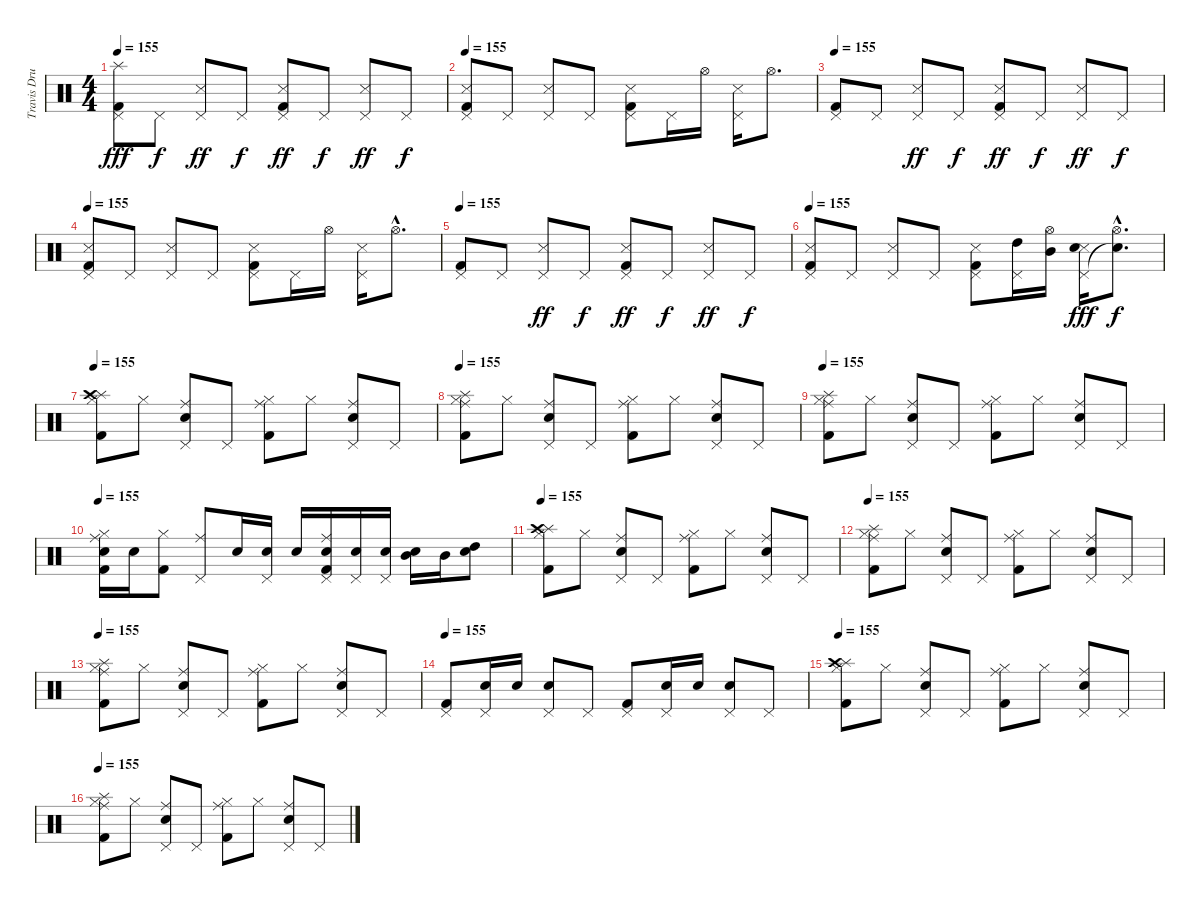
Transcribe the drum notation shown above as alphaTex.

\track ("Travis Drums" "Travis Dru") {instrument percussion}
\staff {score}
\articulation defaults
\ts (4 4)
\tempo 155
\clef neutral
\ks c
("Splash (hit)" "Pedal Hi-Hat (hit)" "Kick (hit) 2").8{dy fff} "Pedal Hi-Hat (hit)".8{dy f} ("Metronome (hit)" "Pedal Hi-Hat (hit)").8{dy ff} "Pedal Hi-Hat (hit)".8{dy f} ("Metronome (hit)" "Pedal Hi-Hat (hit)" "Kick (hit) 2").8{dy ff} "Pedal Hi-Hat (hit)".8{dy f} ("Metronome (hit)" "Pedal Hi-Hat (hit)").8{dy ff} "Pedal Hi-Hat (hit)".8{dy f} |
\tempo 155
("Metronome (hit)" "Pedal Hi-Hat (hit)" "Kick (hit) 2").8 "Pedal Hi-Hat (hit)".8 ("Metronome (hit)" "Pedal Hi-Hat (hit)").8 "Pedal Hi-Hat (hit)".8 ("Metronome (hit)" "Pedal Hi-Hat (hit)" "Kick (hit) 2").8 "Pedal Hi-Hat (hit)".16 "Hi-Hat (open)".16 ("Metronome (hit)" "Pedal Hi-Hat (hit)").16 "Hi-Hat (open)".8{d} |
\tempo 155
("Pedal Hi-Hat (hit)" "Kick (hit) 2").8 "Pedal Hi-Hat (hit)".8 ("Metronome (hit)" "Pedal Hi-Hat (hit)").8{dy ff} "Pedal Hi-Hat (hit)".8{dy f} ("Metronome (hit)" "Pedal Hi-Hat (hit)" "Kick (hit) 2").8{dy ff} "Pedal Hi-Hat (hit)".8{dy f} ("Metronome (hit)" "Pedal Hi-Hat (hit)").8{dy ff} "Pedal Hi-Hat (hit)".8{dy f} |
\tempo 155
("Metronome (hit)" "Pedal Hi-Hat (hit)" "Kick (hit) 2").8 "Pedal Hi-Hat (hit)".8 ("Metronome (hit)" "Pedal Hi-Hat (hit)").8 "Pedal Hi-Hat (hit)".8 ("Metronome (hit)" "Pedal Hi-Hat (hit)" "Kick (hit) 2").8 "Pedal Hi-Hat (hit)".16 "Hi-Hat (open)".16 ("Metronome (hit)" "Pedal Hi-Hat (hit)").16 "Hi-Hat (open)"{hac}.8{d} |
\tempo 155
("Pedal Hi-Hat (hit)" "Kick (hit) 2").8 "Pedal Hi-Hat (hit)".8 ("Metronome (hit)" "Pedal Hi-Hat (hit)").8{dy ff} "Pedal Hi-Hat (hit)".8{dy f} ("Metronome (hit)" "Pedal Hi-Hat (hit)" "Kick (hit) 2").8{dy ff} "Pedal Hi-Hat (hit)".8{dy f} ("Metronome (hit)" "Pedal Hi-Hat (hit)").8{dy ff} "Pedal Hi-Hat (hit)".8{dy f} |
\tempo 155
("Metronome (hit)" "Pedal Hi-Hat (hit)" "Kick (hit) 2").8 "Pedal Hi-Hat (hit)".8 ("Metronome (hit)" "Pedal Hi-Hat (hit)").8 "Pedal Hi-Hat (hit)".8 ("Metronome (hit)" "Pedal Hi-Hat (hit)" "Kick (hit) 2").8 ("Pedal Hi-Hat (hit)" "High Tom (hit)").16 ("Hi-Hat (open)" "Mid Tom (hit)").16 ("Metronome (hit)" "Pedal Hi-Hat (hit)" "Electric Snare (hit)").16{dy fff} ("Hi-Hat (open)"{hac} "Snare (hit)"{hac t}).8{d dy f} |
\tempo 155
("Splash (hit)" "Hi-Hat (closed)" "Kick (hit) 2" "Crash high (hit)").8 "Hi-Hat (closed)".8 ("Electric Snare (hit)" "Pedal Hi-Hat (hit)" "Ride (middle)").8 "Pedal Hi-Hat (hit)".8 ("Hi-Hat (closed)" "Kick (hit) 2" "Ride (middle)").8 "Hi-Hat (closed)".8 ("Electric Snare (hit)" "Pedal Hi-Hat (hit)" "Ride (middle)").8 "Pedal Hi-Hat (hit)".8 |
\tempo 155
("Splash (hit)" "Hi-Hat (closed)" "Kick (hit) 2" "Ride (middle)").8 "Hi-Hat (closed)".8 ("Electric Snare (hit)" "Pedal Hi-Hat (hit)" "Ride (middle)").8 "Pedal Hi-Hat (hit)".8 ("Hi-Hat (closed)" "Kick (hit) 2" "Ride (middle)").8 "Hi-Hat (closed)".8 ("Electric Snare (hit)" "Pedal Hi-Hat (hit)" "Ride (middle)").8 "Pedal Hi-Hat (hit)".8 |
\tempo 155
("Splash (hit)" "Hi-Hat (closed)" "Kick (hit) 2" "Ride (middle)").8 "Hi-Hat (closed)".8 ("Electric Snare (hit)" "Pedal Hi-Hat (hit)" "Ride (middle)").8 "Pedal Hi-Hat (hit)".8 ("Hi-Hat (closed)" "Kick (hit) 2" "Ride (middle)").8 "Hi-Hat (closed)".8 ("Electric Snare (hit)" "Pedal Hi-Hat (hit)" "Ride (middle)").8 "Pedal Hi-Hat (hit)".8 |
\tempo 155
("Electric Snare (hit)" "Hi-Hat (closed)" "Kick (hit) 2" "Ride (middle)").16 "Electric Snare (hit)".16 ("Hi-Hat (closed)" "Kick (hit) 2").8 ("Pedal Hi-Hat (hit)" "Ride (middle)").8 "Electric Snare (hit)".16 ("Electric Snare (hit)" "Pedal Hi-Hat (hit)").16 "Electric Snare (hit)".16 ("Electric Snare (hit)" "Pedal Hi-Hat (hit)" "Kick (hit) 2" "Ride (middle)").16 ("Snare (hit) 2" "Pedal Hi-Hat (hit)").16 ("Snare (hit) 2" "Pedal Hi-Hat (hit)").16 ("Electric Snare (hit)" "Mid Tom (hit)").16 "Mid Tom (hit)".16 ("Electric Snare (hit)" "High Tom (hit)").8 |
\tempo 155
("Splash (hit)" "Hi-Hat (closed)" "Kick (hit) 2" "Crash high (hit)").8 "Hi-Hat (closed)".8 ("Electric Snare (hit)" "Pedal Hi-Hat (hit)" "Ride (middle)").8 "Pedal Hi-Hat (hit)".8 ("Hi-Hat (closed)" "Kick (hit) 2" "Ride (middle)").8 "Hi-Hat (closed)".8 ("Electric Snare (hit)" "Pedal Hi-Hat (hit)" "Ride (middle)").8 "Pedal Hi-Hat (hit)".8 |
\tempo 155
("Splash (hit)" "Hi-Hat (closed)" "Kick (hit) 2" "Ride (middle)").8 "Hi-Hat (closed)".8 ("Electric Snare (hit)" "Pedal Hi-Hat (hit)" "Ride (middle)").8 "Pedal Hi-Hat (hit)".8 ("Hi-Hat (closed)" "Kick (hit) 2" "Ride (middle)").8 "Hi-Hat (closed)".8 ("Electric Snare (hit)" "Pedal Hi-Hat (hit)" "Ride (middle)").8 "Pedal Hi-Hat (hit)".8 |
\tempo 155
("Splash (hit)" "Hi-Hat (closed)" "Kick (hit) 2" "Ride (middle)").8 "Hi-Hat (closed)".8 ("Electric Snare (hit)" "Pedal Hi-Hat (hit)" "Ride (middle)").8 "Pedal Hi-Hat (hit)".8 ("Hi-Hat (closed)" "Kick (hit) 2" "Ride (middle)").8 "Hi-Hat (closed)".8 ("Electric Snare (hit)" "Pedal Hi-Hat (hit)" "Ride (middle)").8 "Pedal Hi-Hat (hit)".8 |
\tempo 155
("Pedal Hi-Hat (hit)" "Kick (hit) 2").8 ("Electric Snare (hit)" "Pedal Hi-Hat (hit)").16 "Electric Snare (hit)".16 ("Electric Snare (hit)" "Pedal Hi-Hat (hit)").8 "Pedal Hi-Hat (hit)".8 ("Pedal Hi-Hat (hit)" "Kick (hit) 2").8 ("Electric Snare (hit)" "Pedal Hi-Hat (hit)").16 "Electric Snare (hit)".16 ("Electric Snare (hit)" "Pedal Hi-Hat (hit)").8 "Pedal Hi-Hat (hit)".8 |
\tempo 155
("Splash (hit)" "Hi-Hat (closed)" "Kick (hit) 2" "Crash high (hit)").8 "Hi-Hat (closed)".8 ("Electric Snare (hit)" "Pedal Hi-Hat (hit)" "Ride (middle)").8 "Pedal Hi-Hat (hit)".8 ("Hi-Hat (closed)" "Kick (hit) 2" "Ride (middle)").8 "Hi-Hat (closed)".8 ("Electric Snare (hit)" "Pedal Hi-Hat (hit)" "Ride (middle)").8 "Pedal Hi-Hat (hit)".8 |
\tempo 155
("Splash (hit)" "Hi-Hat (closed)" "Kick (hit) 2" "Ride (middle)").8 "Hi-Hat (closed)".8 ("Electric Snare (hit)" "Pedal Hi-Hat (hit)" "Ride (middle)").8 "Pedal Hi-Hat (hit)".8 ("Hi-Hat (closed)" "Kick (hit) 2" "Ride (middle)").8 "Hi-Hat (closed)".8 ("Electric Snare (hit)" "Pedal Hi-Hat (hit)" "Ride (middle)").8 "Pedal Hi-Hat (hit)".8
